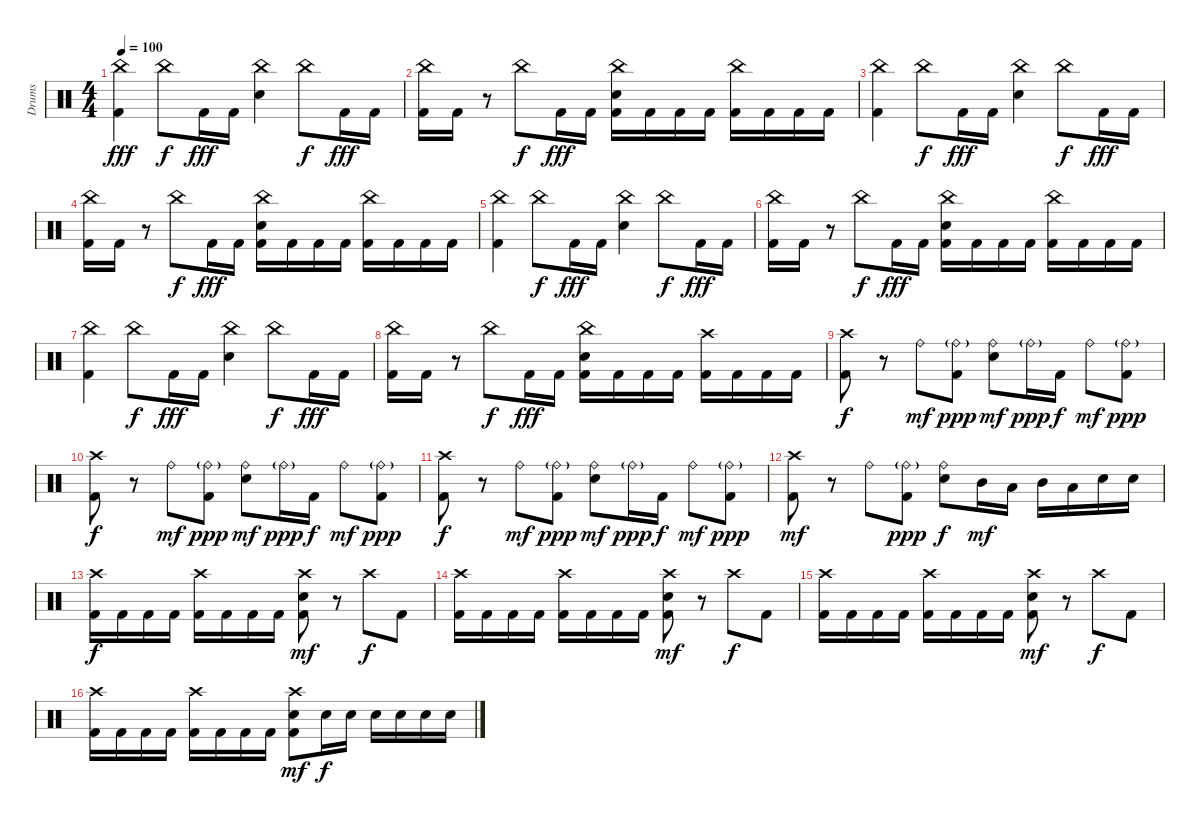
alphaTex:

\track ("Drums" "Drums") {instrument percussion}
\staff {score}
\articulation defaults
\ts (4 4)
\tempo 100
\clef neutral
\ks c
("China (hit)" "Kick (hit) 2").4{dy fff} "China (hit)".8{dy f} "Kick (hit) 2".16{dy fff} "Kick (hit) 2".16 ("China (hit)" "Snare (hit) 2").4 "China (hit)".8{dy f} "Kick (hit) 2".16{dy fff} "Kick (hit) 2".16 |
("China (hit)" "Kick (hit) 2").16 "Kick (hit) 2".16 r.8 "China (hit)".8{dy f} "Kick (hit) 2".16{dy fff} "Kick (hit) 2".16 ("China (hit)" "Snare (hit) 2" "Kick (hit) 2").16 "Kick (hit) 2".16 "Kick (hit) 2".16 "Kick (hit) 2".16 ("China (hit)" "Kick (hit) 2").16 "Kick (hit) 2".16 "Kick (hit) 2".16 "Kick (hit) 2".16 |
("China (hit)" "Kick (hit) 2").4 "China (hit)".8{dy f} "Kick (hit) 2".16{dy fff} "Kick (hit) 2".16 ("China (hit)" "Snare (hit) 2").4 "China (hit)".8{dy f} "Kick (hit) 2".16{dy fff} "Kick (hit) 2".16 |
("China (hit)" "Kick (hit) 2").16 "Kick (hit) 2".16 r.8 "China (hit)".8{dy f} "Kick (hit) 2".16{dy fff} "Kick (hit) 2".16 ("China (hit)" "Snare (hit) 2" "Kick (hit) 2").16 "Kick (hit) 2".16 "Kick (hit) 2".16 "Kick (hit) 2".16 ("China (hit)" "Kick (hit) 2").16 "Kick (hit) 2".16 "Kick (hit) 2".16 "Kick (hit) 2".16 |
("China (hit)" "Kick (hit) 2").4 "China (hit)".8{dy f} "Kick (hit) 2".16{dy fff} "Kick (hit) 2".16 ("China (hit)" "Snare (hit) 2").4 "China (hit)".8{dy f} "Kick (hit) 2".16{dy fff} "Kick (hit) 2".16 |
("China (hit)" "Kick (hit) 2").16 "Kick (hit) 2".16 r.8 "China (hit)".8{dy f} "Kick (hit) 2".16{dy fff} "Kick (hit) 2".16 ("China (hit)" "Snare (hit) 2" "Kick (hit) 2").16 "Kick (hit) 2".16 "Kick (hit) 2".16 "Kick (hit) 2".16 ("China (hit)" "Kick (hit) 2").16 "Kick (hit) 2".16 "Kick (hit) 2".16 "Kick (hit) 2".16 |
("China (hit)" "Kick (hit) 2").4 "China (hit)".8{dy f} "Kick (hit) 2".16{dy fff} "Kick (hit) 2".16 ("China (hit)" "Snare (hit) 2").4 "China (hit)".8{dy f} "Kick (hit) 2".16{dy fff} "Kick (hit) 2".16 |
("China (hit)" "Kick (hit) 2").16 "Kick (hit) 2".16 r.8 "China (hit)".8{dy f} "Kick (hit) 2".16{dy fff} "Kick (hit) 2".16 ("China (hit)" "Snare (hit) 2" "Kick (hit) 2").16 "Kick (hit) 2".16 "Kick (hit) 2".16 "Kick (hit) 2".16 ("Crash high (hit)" "Kick (hit) 2").16 "Kick (hit) 2".16 "Kick (hit) 2".16 "Kick (hit) 2".16 |
("Crash high (hit)" "Kick (hit) 2").8{dy f} r.8 "Ride (bell)".8{dy mf} ("Ride (bell)"{g} "Kick (hit) 2").8{dy ppp} ("Ride (bell)" "Snare (hit) 2").8{dy mf} "Ride (bell)"{g}.16{dy ppp} "Kick (hit) 2".16{dy f} "Ride (bell)".8{dy mf} ("Ride (bell)"{g} "Kick (hit) 2").8{dy ppp} |
("Crash high (hit)" "Kick (hit) 2").8{dy f} r.8 "Ride (bell)".8{dy mf} ("Ride (bell)"{g} "Kick (hit) 2").8{dy ppp} ("Ride (bell)" "Snare (hit) 2").8{dy mf} "Ride (bell)"{g}.16{dy ppp} "Kick (hit) 2".16{dy f} "Ride (bell)".8{dy mf} ("Ride (bell)"{g} "Kick (hit) 2").8{dy ppp} |
("Crash high (hit)" "Kick (hit) 2").8{dy f} r.8 "Ride (bell)".8{dy mf} ("Ride (bell)"{g} "Kick (hit) 2").8{dy ppp} ("Ride (bell)" "Snare (hit) 2").8{dy mf} "Ride (bell)"{g}.16{dy ppp} "Kick (hit) 2".16{dy f} "Ride (bell)".8{dy mf} ("Ride (bell)"{g} "Kick (hit) 2").8{dy ppp} |
("Crash high (hit)" "Kick (hit) 2").8{dy mf} r.8 "Ride (bell)".8 ("Ride (bell)"{g} "Kick (hit) 2").8{dy ppp} ("Ride (bell)" "Snare (hit) 2").8{dy f} "Mid Tom (hit)".16{dy mf} "Low Tom (hit)".16 "Mid Tom (hit)".16 "Low Tom (hit)".16 "Snare (hit) 2".16 "Snare (hit) 2".16 |
("Crash high (hit)" "Kick (hit) 2").16{dy f} "Kick (hit) 2".16 "Kick (hit) 2".16 "Kick (hit) 2".16 ("Crash high (hit)" "Kick (hit) 2").16 "Kick (hit) 2".16 "Kick (hit) 2".16 "Kick (hit) 2".16 ("Crash high (hit)" "Snare (hit) 2" "Kick (hit) 2").8{dy mf} r.8 "Crash high (hit)".8{dy f} "Kick (hit) 2".8 |
("Crash high (hit)" "Kick (hit) 2").16 "Kick (hit) 2".16 "Kick (hit) 2".16 "Kick (hit) 2".16 ("Crash high (hit)" "Kick (hit) 2").16 "Kick (hit) 2".16 "Kick (hit) 2".16 "Kick (hit) 2".16 ("Crash high (hit)" "Snare (hit) 2" "Kick (hit) 2").8{dy mf} r.8 "Crash high (hit)".8{dy f} "Kick (hit) 2".8 |
("Crash high (hit)" "Kick (hit) 2").16 "Kick (hit) 2".16 "Kick (hit) 2".16 "Kick (hit) 2".16 ("Crash high (hit)" "Kick (hit) 2").16 "Kick (hit) 2".16 "Kick (hit) 2".16 "Kick (hit) 2".16 ("Crash high (hit)" "Snare (hit) 2" "Kick (hit) 2").8{dy mf} r.8 "Crash high (hit)".8{dy f} "Kick (hit) 2".8 |
("Crash high (hit)" "Kick (hit) 2").16 "Kick (hit) 2".16 "Kick (hit) 2".16 "Kick (hit) 2".16 ("Crash high (hit)" "Kick (hit) 2").16 "Kick (hit) 2".16 "Kick (hit) 2".16 "Kick (hit) 2".16 ("Crash high (hit)" "Snare (hit) 2" "Kick (hit) 2").8{dy mf} "Snare (hit) 2".16{dy f} "Snare (hit) 2".16 "Snare (hit) 2".16 "Snare (hit) 2".16 "Snare (hit) 2".16 "Snare (hit) 2".16
